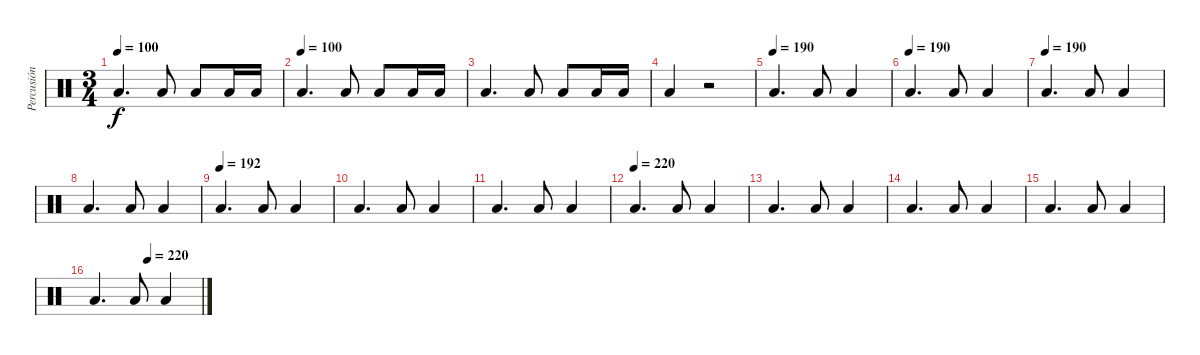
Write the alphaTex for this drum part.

\track ("Percusión" "Percusión") {instrument percussion}
\staff {score}
\articulation defaults
\ts (3 4)
\tempo 100
\clef neutral
\ks c "Low Floor Tom (hit)".4{d dy f} "Low Floor Tom (hit)".8 "Low Floor Tom (hit)".8 "Low Floor Tom (hit)".16 "Low Floor Tom (hit)".16
|
\tempo (100)
"Low Floor Tom (hit)".4{d} "Low Floor Tom (hit)".8 "Low Floor Tom (hit)".8 "Low Floor Tom (hit)".16 "Low Floor Tom (hit)".16 |
"Low Floor Tom (hit)".4{d} "Low Floor Tom (hit)".8 "Low Floor Tom (hit)".8 "Low Floor Tom (hit)".16 "Low Floor Tom (hit)".16 |
"Low Floor Tom (hit)".4 r.2 |
\tempo (190)
"Low Floor Tom (hit)".4{d} "Low Floor Tom (hit)".8 "Low Floor Tom (hit)".4 |
\tempo (190)
"Low Floor Tom (hit)".4{d} "Low Floor Tom (hit)".8 "Low Floor Tom (hit)".4 |
\tempo 220
\tempo (190)
"Low Floor Tom (hit)".4{d} "Low Floor Tom (hit)".8 "Low Floor Tom (hit)".4 |
"Low Floor Tom (hit)".4{d} "Low Floor Tom (hit)".8 "Low Floor Tom (hit)".4 |
\tempo (192)
"Low Floor Tom (hit)".4{d} "Low Floor Tom (hit)".8 "Low Floor Tom (hit)".4 |
"Low Floor Tom (hit)".4{d} "Low Floor Tom (hit)".8 "Low Floor Tom (hit)".4 |
"Low Floor Tom (hit)".4{d} "Low Floor Tom (hit)".8 "Low Floor Tom (hit)".4 |
\tempo (220)
"Low Floor Tom (hit)".4{d} "Low Floor Tom (hit)".8 "Low Floor Tom (hit)".4 |
"Low Floor Tom (hit)".4{d} "Low Floor Tom (hit)".8 "Low Floor Tom (hit)".4 |
"Low Floor Tom (hit)".4{d} "Low Floor Tom (hit)".8 "Low Floor Tom (hit)".4 |
"Low Floor Tom (hit)".4{d} "Low Floor Tom (hit)".8 "Low Floor Tom (hit)".4 |
\tempo (220 0.5)
"Low Floor Tom (hit)".4{d} "Low Floor Tom (hit)".8 "Low Floor Tom (hit)".4
